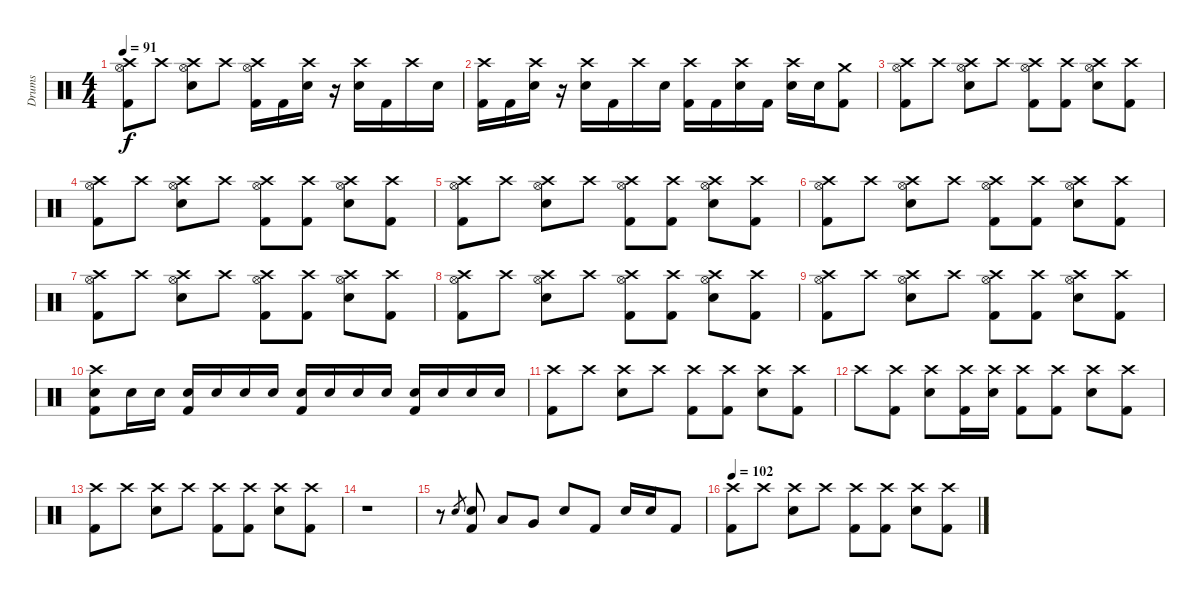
\track ("Drums" "Drums") {instrument percussion}
\staff {score}
\articulation defaults
\ts (4 4)
\tempo 91
\clef neutral
\ks c
("Crash high (hit)" "Hi-Hat (open)" "Kick (hit) 2").8{dy f} "Crash high (hit)".8 ("Crash high (hit)" "Hi-Hat (open)" "Electric Snare (hit)").8 "Crash high (hit)".8 ("Crash high (hit)" "Hi-Hat (open)" "Kick (hit) 2").16 "Kick (hit) 2".16 ("Crash high (hit)" "Electric Snare (hit)").16 r.16 ("Crash high (hit)" "Electric Snare (hit)").16 "Kick (hit) 2".16 "Crash high (hit)".16 "Electric Snare (hit)".16 |
("Crash high (hit)" "Kick (hit) 2").16 "Kick (hit) 2".16 ("Crash high (hit)" "Electric Snare (hit)").16 r.16 ("Crash high (hit)" "Electric Snare (hit)").16 "Kick (hit) 2".16 "Crash high (hit)".16 "Electric Snare (hit)".16 ("Crash high (hit)" "Kick (hit) 2").16 "Kick (hit) 2".16 ("Crash high (hit)" "Electric Snare (hit)").16 "Kick (hit) 2".16 ("Crash high (hit)" "Electric Snare (hit)").16 "Electric Snare (hit)".16 ("Crash medium (hit)" "Kick (hit) 2").8 |
("Crash high (hit)" "Hi-Hat (open)" "Kick (hit) 2").8 "Crash high (hit)".8 ("Crash high (hit)" "Hi-Hat (open)" "Electric Snare (hit)").8 "Crash high (hit)".8 ("Crash high (hit)" "Hi-Hat (open)" "Kick (hit) 2").8 ("Crash high (hit)" "Kick (hit) 2").8 ("Crash high (hit)" "Hi-Hat (open)" "Electric Snare (hit)").8 ("Crash high (hit)" "Kick (hit) 2").8 |
("Crash high (hit)" "Hi-Hat (open)" "Kick (hit) 2").8 "Crash high (hit)".8 ("Crash high (hit)" "Hi-Hat (open)" "Electric Snare (hit)").8 "Crash high (hit)".8 ("Crash high (hit)" "Hi-Hat (open)" "Kick (hit) 2").8 ("Crash high (hit)" "Kick (hit) 2").8 ("Crash high (hit)" "Hi-Hat (open)" "Electric Snare (hit)").8 ("Crash high (hit)" "Kick (hit) 2").8 |
("Crash high (hit)" "Hi-Hat (open)" "Kick (hit) 2").8 "Crash high (hit)".8 ("Crash high (hit)" "Hi-Hat (open)" "Electric Snare (hit)").8 "Crash high (hit)".8 ("Crash high (hit)" "Hi-Hat (open)" "Kick (hit) 2").8 ("Crash high (hit)" "Kick (hit) 2").8 ("Crash high (hit)" "Hi-Hat (open)" "Electric Snare (hit)").8 ("Crash high (hit)" "Kick (hit) 2").8 |
("Crash high (hit)" "Hi-Hat (open)" "Kick (hit) 2").8 "Crash high (hit)".8 ("Crash high (hit)" "Hi-Hat (open)" "Electric Snare (hit)").8 "Crash high (hit)".8 ("Crash high (hit)" "Hi-Hat (open)" "Kick (hit) 2").8 ("Crash high (hit)" "Kick (hit) 2").8 ("Crash high (hit)" "Hi-Hat (open)" "Electric Snare (hit)").8 ("Crash high (hit)" "Kick (hit) 2").8 |
("Crash high (hit)" "Hi-Hat (open)" "Kick (hit) 2").8 "Crash high (hit)".8 ("Crash high (hit)" "Hi-Hat (open)" "Electric Snare (hit)").8 "Crash high (hit)".8 ("Crash high (hit)" "Hi-Hat (open)" "Kick (hit) 2").8 ("Crash high (hit)" "Kick (hit) 2").8 ("Crash high (hit)" "Hi-Hat (open)" "Electric Snare (hit)").8 ("Crash high (hit)" "Kick (hit) 2").8 |
("Crash high (hit)" "Hi-Hat (open)" "Kick (hit) 2").8 "Crash high (hit)".8 ("Crash high (hit)" "Hi-Hat (open)" "Electric Snare (hit)").8 "Crash high (hit)".8 ("Crash high (hit)" "Hi-Hat (open)" "Kick (hit) 2").8 ("Crash high (hit)" "Kick (hit) 2").8 ("Crash high (hit)" "Hi-Hat (open)" "Electric Snare (hit)").8 ("Crash high (hit)" "Kick (hit) 2").8 |
("Crash high (hit)" "Hi-Hat (open)" "Kick (hit) 2").8 "Crash high (hit)".8 ("Crash high (hit)" "Hi-Hat (open)" "Electric Snare (hit)").8 "Crash high (hit)".8 ("Crash high (hit)" "Hi-Hat (open)" "Kick (hit) 2").8 ("Crash high (hit)" "Kick (hit) 2").8 ("Crash high (hit)" "Hi-Hat (open)" "Electric Snare (hit)").8 ("Crash high (hit)" "Kick (hit) 2").8 |
("Crash high (hit)" "Electric Snare (hit)" "Kick (hit) 2").8 "Electric Snare (hit)".16 "Electric Snare (hit)".16 ("Electric Snare (hit)" "Kick (hit) 2").16 "Electric Snare (hit)".16 "Electric Snare (hit)".16 "Electric Snare (hit)".16 ("Electric Snare (hit)" "Kick (hit) 2").16 "Electric Snare (hit)".16 "Electric Snare (hit)".16 "Electric Snare (hit)".16 ("Electric Snare (hit)" "Kick (hit) 2").16 "Electric Snare (hit)".16 "Electric Snare (hit)".16 "Electric Snare (hit)".16 |
("Crash high (hit)" "Kick (hit) 2").8 "Crash high (hit)".8 ("Crash high (hit)" "Electric Snare (hit)").8 "Crash high (hit)".8 ("Crash high (hit)" "Kick (hit) 2").8 ("Crash high (hit)" "Kick (hit) 2").8 ("Crash high (hit)" "Electric Snare (hit)").8 ("Crash high (hit)" "Kick (hit) 2").8 |
"Crash high (hit)".8 ("Crash high (hit)" "Kick (hit) 2").8 ("Crash high (hit)" "Electric Snare (hit)").8 ("Crash high (hit)" "Kick (hit) 2").16 ("Crash high (hit)" "Electric Snare (hit)").16 ("Crash high (hit)" "Kick (hit) 2").8 ("Crash high (hit)" "Kick (hit) 2").8 ("Crash high (hit)" "Electric Snare (hit)").8 ("Crash high (hit)" "Kick (hit) 2").8 |
("Crash high (hit)" "Kick (hit) 2").8 "Crash high (hit)".8 ("Crash high (hit)" "Electric Snare (hit)").8 "Crash high (hit)".8 ("Crash high (hit)" "Kick (hit) 2").8 ("Crash high (hit)" "Kick (hit) 2").8 ("Crash high (hit)" "Electric Snare (hit)").8 ("Crash high (hit)" "Kick (hit) 2").8 |
r.1 |
r.8 "Electric Snare (hit)".8{gr} ("Electric Snare (hit)" "Kick (hit) 2").8 "Low Tom (hit)".8 "Very Low Tom (hit)".8 "Electric Snare (hit)".8 "Kick (hit) 2".8 "Electric Snare (hit)".16 "Electric Snare (hit)".16 "Kick (hit) 2".8 |
\tempo 102
("Crash high (hit)" "Kick (hit) 2").8 "Crash high (hit)".8 ("Crash high (hit)" "Electric Snare (hit)").8 "Crash high (hit)".8 ("Crash high (hit)" "Kick (hit) 2").8 ("Crash high (hit)" "Kick (hit) 2").8 ("Crash high (hit)" "Electric Snare (hit)").8 ("Crash high (hit)" "Kick (hit) 2").8
